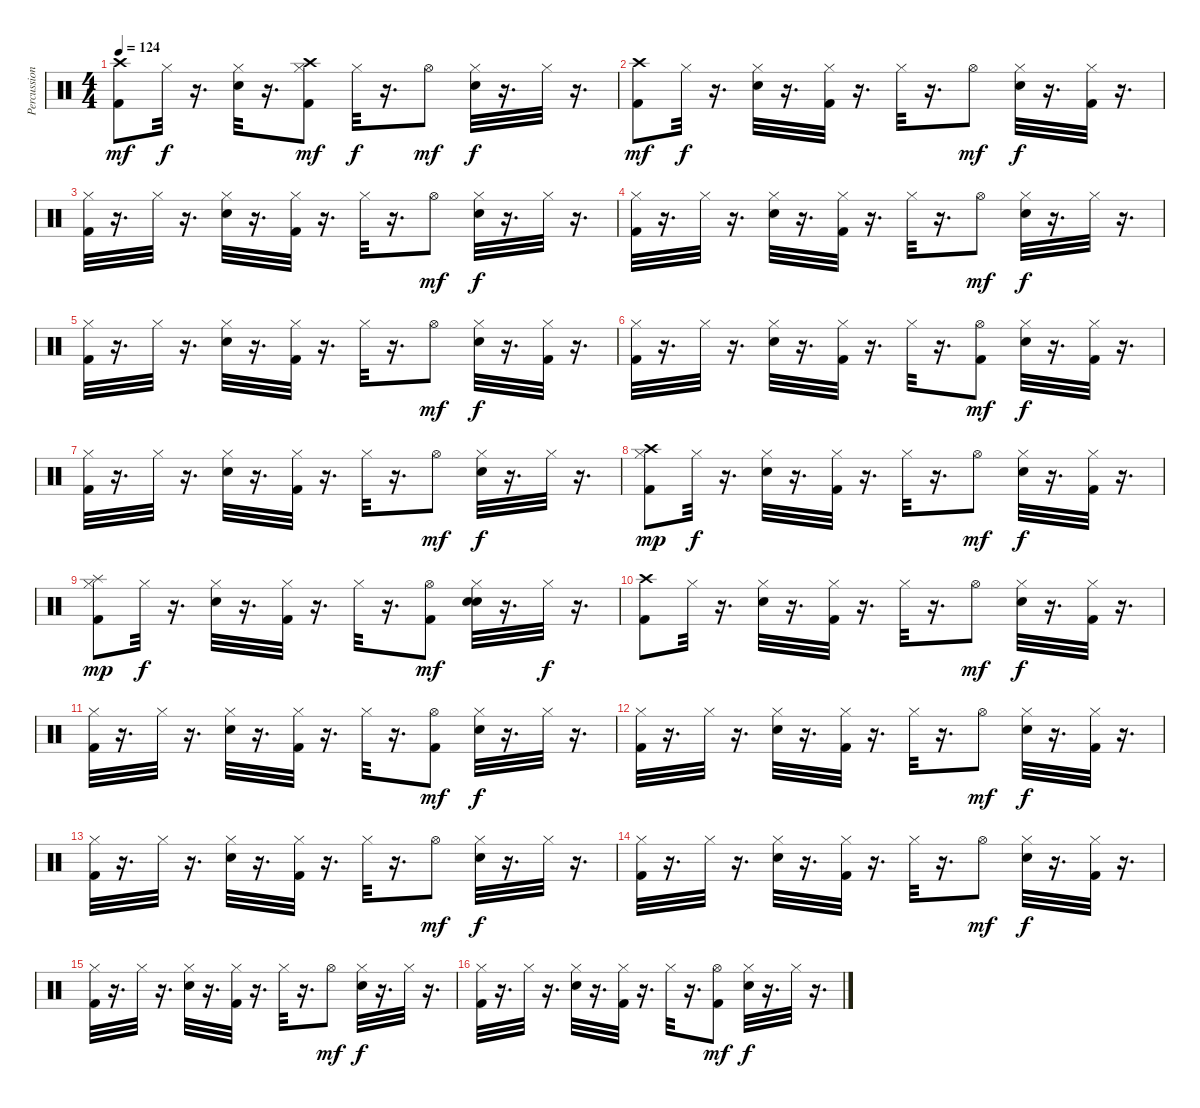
\track ("Percussions" "Percussion") {instrument percussion}
\staff {score}
\articulation defaults
\ts (4 4)
\tempo 124
\clef neutral
\ks c
("Kick (hit) 2" "Crash high (hit)").8{dy mf} "Hi-Hat (closed)".32{dy f} r.16{d} ("Snare (hit) 2" "Hi-Hat (closed)").32 r.16{d} ("Kick (hit) 2" "Hi-Hat (closed)" "Crash high (hit)").8{dy mf} "Hi-Hat (closed)".32{dy f} r.16{d} "Hi-Hat (open)".8{dy mf} ("Snare (hit) 2" "Hi-Hat (closed)").32{dy f} r.16{d} "Hi-Hat (closed)".32 r.16{d} |
("Kick (hit) 2" "Crash high (hit)").8{dy mf} "Hi-Hat (closed)".32{dy f} r.16{d} ("Snare (hit) 2" "Hi-Hat (closed)").32 r.16{d} ("Kick (hit) 2" "Hi-Hat (closed)").32 r.16{d} "Hi-Hat (closed)".32 r.16{d} "Hi-Hat (open)".8{dy mf} ("Snare (hit) 2" "Hi-Hat (closed)").32{dy f} r.16{d} ("Kick (hit) 2" "Hi-Hat (closed)").32 r.16{d} |
("Kick (hit) 2" "Hi-Hat (closed)").32 r.16{d} "Hi-Hat (closed)".32 r.16{d} ("Snare (hit) 2" "Hi-Hat (closed)").32 r.16{d} ("Kick (hit) 2" "Hi-Hat (closed)").32 r.16{d} "Hi-Hat (closed)".32 r.16{d} "Hi-Hat (open)".8{dy mf} ("Snare (hit) 2" "Hi-Hat (closed)").32{dy f} r.16{d} "Hi-Hat (closed)".32 r.16{d} |
("Kick (hit) 2" "Hi-Hat (closed)").32 r.16{d} "Hi-Hat (closed)".32 r.16{d} ("Snare (hit) 2" "Hi-Hat (closed)").32 r.16{d} ("Kick (hit) 2" "Hi-Hat (closed)").32 r.16{d} "Hi-Hat (closed)".32 r.16{d} "Hi-Hat (open)".8{dy mf} ("Snare (hit) 2" "Hi-Hat (closed)").32{dy f} r.16{d} "Hi-Hat (closed)".32 r.16{d} |
("Kick (hit) 2" "Hi-Hat (closed)").32 r.16{d} "Hi-Hat (closed)".32 r.16{d} ("Snare (hit) 2" "Hi-Hat (closed)").32 r.16{d} ("Kick (hit) 2" "Hi-Hat (closed)").32 r.16{d} "Hi-Hat (closed)".32 r.16{d} "Hi-Hat (open)".8{dy mf} ("Snare (hit) 2" "Hi-Hat (closed)").32{dy f} r.16{d} ("Kick (hit) 2" "Hi-Hat (closed)").32 r.16{d} |
("Kick (hit) 2" "Hi-Hat (closed)").32 r.16{d} "Hi-Hat (closed)".32 r.16{d} ("Snare (hit) 2" "Hi-Hat (closed)").32 r.16{d} ("Kick (hit) 2" "Hi-Hat (closed)").32 r.16{d} "Hi-Hat (closed)".32 r.16{d} ("Kick (hit) 2" "Hi-Hat (open)").8{dy mf} ("Snare (hit) 2" "Hi-Hat (closed)").32{dy f} r.16{d} ("Kick (hit) 2" "Hi-Hat (closed)").32 r.16{d} |
("Kick (hit) 2" "Hi-Hat (closed)").32 r.16{d} "Hi-Hat (closed)".32 r.16{d} ("Snare (hit) 2" "Hi-Hat (closed)").32 r.16{d} ("Kick (hit) 2" "Hi-Hat (closed)").32 r.16{d} "Hi-Hat (closed)".32 r.16{d} "Hi-Hat (open)".8{dy mf} ("Snare (hit) 2" "Hi-Hat (closed)").32{dy f} r.16{d} "Hi-Hat (closed)".32 r.16{d} |
("Kick (hit) 2" "Hi-Hat (closed)" "Crash high (hit)").8{dy mp} "Hi-Hat (closed)".32{dy f} r.16{d} ("Snare (hit) 2" "Hi-Hat (closed)").32 r.16{d} ("Kick (hit) 2" "Hi-Hat (closed)").32 r.16{d} "Hi-Hat (closed)".32 r.16{d} "Hi-Hat (open)".8{dy mf} ("Snare (hit) 2" "Hi-Hat (closed)").32{dy f} r.16{d} ("Kick (hit) 2" "Hi-Hat (closed)").32 r.16{d} |
("Kick (hit) 2" "Hi-Hat (closed)" "Splash (hit)").8{dy mp} "Hi-Hat (closed)".32{dy f} r.16{d} ("Snare (hit) 2" "Hi-Hat (closed)").32 r.16{d} ("Kick (hit) 2" "Hi-Hat (closed)").32 r.16{d} "Hi-Hat (closed)".32 r.16{d} ("Kick (hit) 2" "Hi-Hat (open)").8{dy mf} ("Snare (hit) 2" "Snare (hit) 2" "Hi-Hat (closed)").32 r.16{d} "Hi-Hat (closed)".32{dy f} r.16{d} |
("Kick (hit) 2" "Crash high (hit)").8 "Hi-Hat (closed)".32 r.16{d} ("Snare (hit) 2" "Hi-Hat (closed)").32 r.16{d} ("Kick (hit) 2" "Hi-Hat (closed)").32 r.16{d} "Hi-Hat (closed)".32 r.16{d} "Hi-Hat (open)".8{dy mf} ("Snare (hit) 2" "Hi-Hat (closed)").32{dy f} r.16{d} ("Kick (hit) 2" "Hi-Hat (closed)").32 r.16{d} |
("Kick (hit) 2" "Hi-Hat (closed)").32 r.16{d} "Hi-Hat (closed)".32 r.16{d} ("Snare (hit) 2" "Hi-Hat (closed)").32 r.16{d} ("Kick (hit) 2" "Hi-Hat (closed)").32 r.16{d} "Hi-Hat (closed)".32 r.16{d} ("Kick (hit) 2" "Hi-Hat (open)").8{dy mf} ("Snare (hit) 2" "Hi-Hat (closed)").32{dy f} r.16{d} "Hi-Hat (closed)".32 r.16{d} |
("Kick (hit) 2" "Hi-Hat (closed)").32 r.16{d} "Hi-Hat (closed)".32 r.16{d} ("Snare (hit) 2" "Hi-Hat (closed)").32 r.16{d} ("Kick (hit) 2" "Hi-Hat (closed)").32 r.16{d} "Hi-Hat (closed)".32 r.16{d} "Hi-Hat (open)".8{dy mf} ("Snare (hit) 2" "Hi-Hat (closed)").32{dy f} r.16{d} ("Kick (hit) 2" "Hi-Hat (closed)").32 r.16{d} |
("Kick (hit) 2" "Hi-Hat (closed)").32 r.16{d} "Hi-Hat (closed)".32 r.16{d} ("Snare (hit) 2" "Hi-Hat (closed)").32 r.16{d} ("Kick (hit) 2" "Hi-Hat (closed)").32 r.16{d} "Hi-Hat (closed)".32 r.16{d} "Hi-Hat (open)".8{dy mf} ("Snare (hit) 2" "Hi-Hat (closed)").32{dy f} r.16{d} "Hi-Hat (closed)".32 r.16{d} |
("Kick (hit) 2" "Hi-Hat (closed)").32 r.16{d} "Hi-Hat (closed)".32 r.16{d} ("Snare (hit) 2" "Hi-Hat (closed)").32 r.16{d} ("Kick (hit) 2" "Hi-Hat (closed)").32 r.16{d} "Hi-Hat (closed)".32 r.16{d} "Hi-Hat (open)".8{dy mf} ("Snare (hit) 2" "Hi-Hat (closed)").32{dy f} r.16{d} ("Kick (hit) 2" "Hi-Hat (closed)").32 r.16{d} |
("Kick (hit) 2" "Hi-Hat (closed)").32 r.16{d} "Hi-Hat (closed)".32 r.16{d} ("Snare (hit) 2" "Hi-Hat (closed)").32 r.16{d} ("Kick (hit) 2" "Hi-Hat (closed)").32 r.16{d} "Hi-Hat (closed)".32 r.16{d} "Hi-Hat (open)".8{dy mf} ("Snare (hit) 2" "Hi-Hat (closed)").32{dy f} r.16{d} "Hi-Hat (closed)".32 r.16{d} |
("Kick (hit) 2" "Hi-Hat (closed)").32 r.16{d} "Hi-Hat (closed)".32 r.16{d} ("Snare (hit) 2" "Hi-Hat (closed)").32 r.16{d} ("Kick (hit) 2" "Hi-Hat (closed)").32 r.16{d} "Hi-Hat (closed)".32 r.16{d} ("Kick (hit) 2" "Hi-Hat (open)").8{dy mf} ("Snare (hit) 2" "Hi-Hat (closed)").32{dy f} r.16{d} "Hi-Hat (closed)".32 r.16{d}
